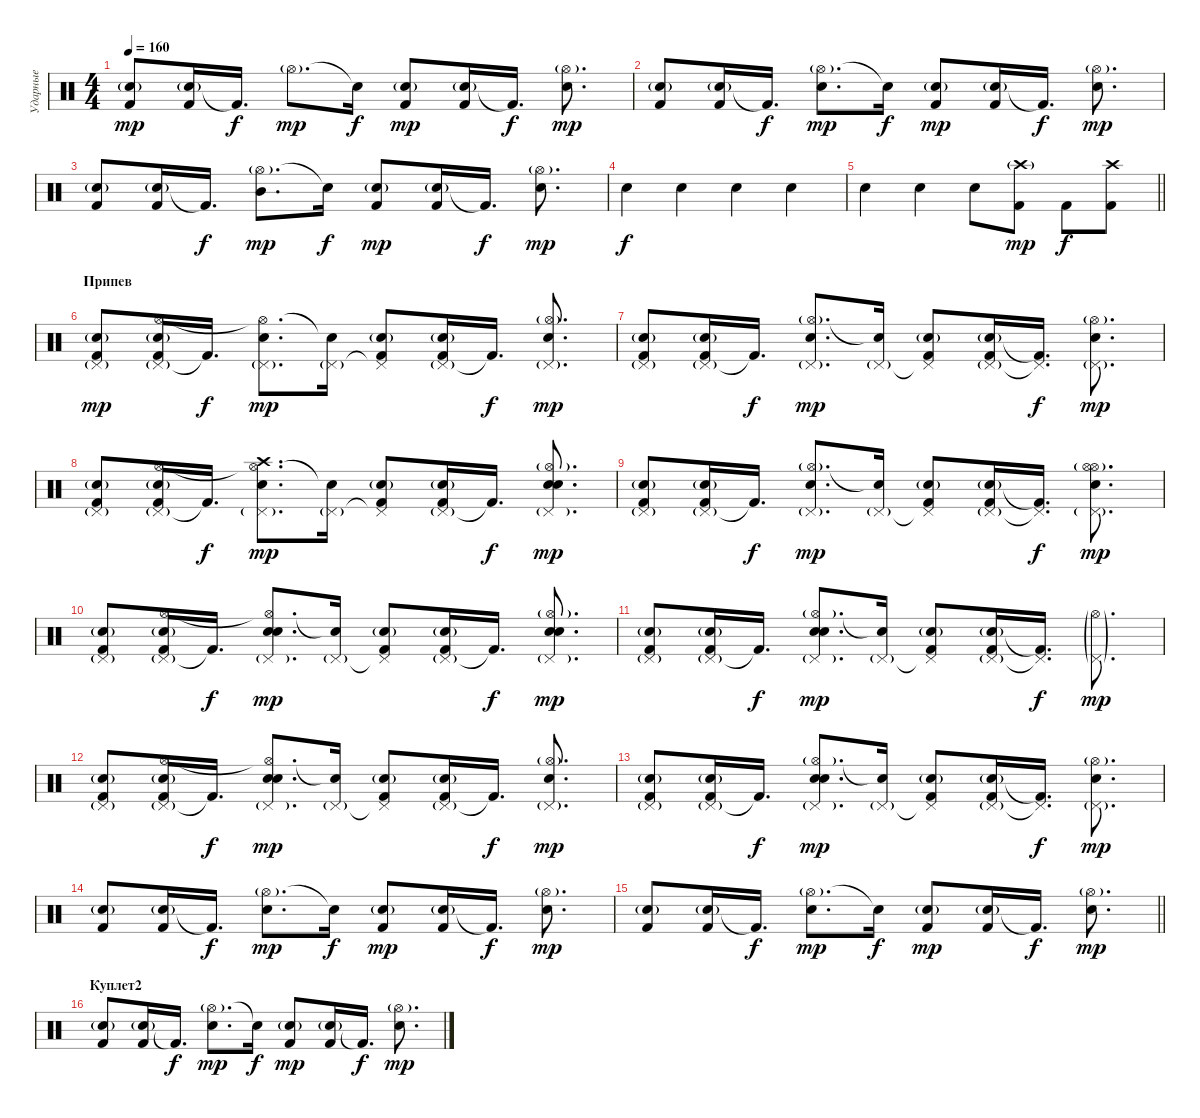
\track ("Ударные" "Ударные") {instrument percussion}
\staff {score}
\articulation defaults
\ts (4 4)
\tempo 160
\clef neutral
\ks c
("Snare (hit) 2"{g} "Kick (hit) 2").8{dy mp} ("Snare (hit) 2"{g} "Kick (hit) 2").16 "Kick (hit) 2"{t}.16{d dy f} "Hi-Hat (open)"{g}.8{d dy mp} "Electric Snare (hit)"{t}.16{dy f} ("Snare (hit) 2"{g} "Kick (hit) 2").8{dy mp} ("Snare (hit) 2"{g} "Kick (hit) 2").16 "Kick (hit) 2"{t}.16{d dy f} ("Hi-Hat (open)"{g} "Electric Snare (hit)").8{d dy mp} |
("Snare (hit) 2"{g} "Kick (hit) 2").8 ("Snare (hit) 2"{g} "Kick (hit) 2").16 "Kick (hit) 2"{t}.16{d dy f} ("Hi-Hat (open)"{g} "Snare (hit) 2").8{d dy mp} "Electric Snare (hit)"{t}.16{dy f} ("Snare (hit) 2"{g} "Kick (hit) 2").8{dy mp} ("Snare (hit) 2"{g} "Kick (hit) 2").16 "Kick (hit) 2"{t}.16{d dy f} ("Hi-Hat (open)"{g} "Electric Snare (hit)").8{d dy mp} |
("Snare (hit) 2"{g} "Kick (hit) 2").8 ("Snare (hit) 2"{g} "Kick (hit) 2").16 "Kick (hit) 2"{t}.16{d dy f} ("Hi-Hat (open)"{g} "Mid Tom (hit)").8{d dy mp} "Electric Snare (hit)"{t}.16{dy f} ("Snare (hit) 2"{g} "Kick (hit) 2").8{dy mp} ("Snare (hit) 2"{g} "Kick (hit) 2").16 "Kick (hit) 2"{t}.16{d dy f} ("Hi-Hat (open)"{g} "Electric Snare (hit)").8{d dy mp} |
"Electric Snare (hit)".4{dy f} "Electric Snare (hit)".4 "Electric Snare (hit)".4 "Electric Snare (hit)".4 |
\barLineRight lightlight "Electric Snare (hit)".4 "Electric Snare (hit)".4 "Electric Snare (hit)".8
("Crash high (hit)"{g} "Kick (hit) 2").8{dy mp} "Kick (hit) 2".8{dy f} ("Crash high (hit)" "Kick (hit) 2").8 |
\section ("" "Припев")
("Pedal Hi-Hat (hit)"{g} "Snare (hit) 2"{g} "Kick (hit) 2").8{dy mp} ("Pedal Hi-Hat (hit)"{g} "Hi-Hat (open)" "Snare (hit) 2"{g} "Kick (hit) 2").16 "Kick (hit) 2"{t}.16{d dy f} ("Pedal Hi-Hat (hit)"{g} "Hi-Hat (open)"{t} "Electric Snare (hit)").8{d dy mp} ("Pedal Hi-Hat (hit)"{g} "Electric Snare (hit)"{t}).16 ("Pedal Hi-Hat (hit)"{t} "Snare (hit) 2"{g} "Kick (hit) 2").8 ("Pedal Hi-Hat (hit)"{g} "Snare (hit) 2"{g} "Kick (hit) 2").16 "Kick (hit) 2"{t}.16{d dy f} ("Hi-Hat (open)"{g} "Pedal Hi-Hat (hit)"{g} "Snare (hit) 2").8{d dy mp} |
("Pedal Hi-Hat (hit)"{g} "Snare (hit) 2"{g} "Kick (hit) 2").8 ("Pedal Hi-Hat (hit)"{g} "Snare (hit) 2"{g} "Kick (hit) 2").16 "Kick (hit) 2"{t}.16{d dy f} ("Pedal Hi-Hat (hit)"{g} "Hi-Hat (open)"{g} "Snare (hit) 2").8{d dy mp} ("Pedal Hi-Hat (hit)"{g} "Electric Snare (hit)"{t}).16 ("Pedal Hi-Hat (hit)"{t} "Snare (hit) 2"{g} "Kick (hit) 2").8 ("Pedal Hi-Hat (hit)"{g} "Snare (hit) 2"{g} "Kick (hit) 2").16 ("Pedal Hi-Hat (hit)"{t} "Kick (hit) 2"{t}).16{d dy f} ("Hi-Hat (open)"{g} "Pedal Hi-Hat (hit)"{g} "Electric Snare (hit)").8{d dy mp} |
("Pedal Hi-Hat (hit)"{g} "Snare (hit) 2"{g} "Kick (hit) 2").8 ("Pedal Hi-Hat (hit)"{g} "Hi-Hat (open)" "Snare (hit) 2"{g} "Kick (hit) 2").16 "Kick (hit) 2"{t}.16{d dy f} ("Pedal Hi-Hat (hit)"{g} "Hi-Hat (open)"{t} "Electric Snare (hit)" "Crash high (hit)").8{d dy mp} ("Pedal Hi-Hat (hit)"{g} "Electric Snare (hit)"{t}).16 ("Pedal Hi-Hat (hit)"{t} "Snare (hit) 2"{g} "Kick (hit) 2").8 ("Pedal Hi-Hat (hit)"{g} "Snare (hit) 2"{g} "Kick (hit) 2").16 "Kick (hit) 2"{t}.16{d dy f} ("Hi-Hat (open)"{g} "Pedal Hi-Hat (hit)"{g} "Snare (hit) 2" "Electric Snare (hit)").8{d dy mp} |
("Pedal Hi-Hat (hit)"{g} "Snare (hit) 2"{g} "Kick (hit) 2").8 ("Pedal Hi-Hat (hit)"{g} "Snare (hit) 2"{g} "Kick (hit) 2").16 "Kick (hit) 2"{t}.16{d dy f} ("Pedal Hi-Hat (hit)"{g} "Hi-Hat (open)"{g} "Snare (hit) 2").8{d dy mp} ("Pedal Hi-Hat (hit)"{g} "Electric Snare (hit)"{t}).16 ("Pedal Hi-Hat (hit)"{t} "Snare (hit) 2"{g} "Kick (hit) 2").8 ("Pedal Hi-Hat (hit)"{g} "Snare (hit) 2"{g} "Kick (hit) 2").16 ("Pedal Hi-Hat (hit)"{t} "Kick (hit) 2"{t}).16{d dy f} ("Hi-Hat (open)"{g} "Pedal Hi-Hat (hit)"{g} "Electric Snare (hit)" "Hi-Hat (open)").8{d dy mp} |
("Pedal Hi-Hat (hit)"{g} "Snare (hit) 2"{g} "Kick (hit) 2").8 ("Pedal Hi-Hat (hit)"{g} "Hi-Hat (open)" "Snare (hit) 2"{g} "Kick (hit) 2").16 "Kick (hit) 2"{t}.16{d dy f} ("Pedal Hi-Hat (hit)"{g} "Hi-Hat (open)"{t} "Snare (hit) 2" "Electric Snare (hit)").8{d dy mp} ("Pedal Hi-Hat (hit)"{g} "Electric Snare (hit)"{t}).16 ("Pedal Hi-Hat (hit)"{t} "Snare (hit) 2"{g} "Kick (hit) 2").8 ("Pedal Hi-Hat (hit)"{g} "Snare (hit) 2"{g} "Kick (hit) 2").16 "Kick (hit) 2"{t}.16{d dy f} ("Hi-Hat (open)"{g} "Pedal Hi-Hat (hit)"{g} "Electric Snare (hit)" "Snare (hit) 2").8{d dy mp} |
("Pedal Hi-Hat (hit)"{g} "Snare (hit) 2"{g} "Kick (hit) 2").8 ("Pedal Hi-Hat (hit)"{g} "Snare (hit) 2"{g} "Kick (hit) 2").16 "Kick (hit) 2"{t}.16{d dy f} ("Pedal Hi-Hat (hit)"{g} "Hi-Hat (open)"{g} "Electric Snare (hit)" "Snare (hit) 2").8{d dy mp} ("Pedal Hi-Hat (hit)"{g} "Electric Snare (hit)"{t}).16 ("Pedal Hi-Hat (hit)"{t} "Snare (hit) 2"{g} "Kick (hit) 2").8 ("Pedal Hi-Hat (hit)"{g} "Snare (hit) 2"{g} "Kick (hit) 2").16 ("Pedal Hi-Hat (hit)"{t} "Kick (hit) 2"{t}).16{d dy f} ("Hi-Hat (open)"{g} "Pedal Hi-Hat (hit)"{g}).8{d dy mp} |
("Pedal Hi-Hat (hit)"{g} "Snare (hit) 2"{g} "Kick (hit) 2").8 ("Pedal Hi-Hat (hit)"{g} "Hi-Hat (open)" "Snare (hit) 2"{g} "Kick (hit) 2").16 "Kick (hit) 2"{t}.16{d dy f} ("Pedal Hi-Hat (hit)"{g} "Hi-Hat (open)"{t} "Electric Snare (hit)" "Snare (hit) 2").8{d dy mp} ("Pedal Hi-Hat (hit)"{g} "Electric Snare (hit)"{t}).16 ("Pedal Hi-Hat (hit)"{t} "Snare (hit) 2"{g} "Kick (hit) 2").8 ("Pedal Hi-Hat (hit)"{g} "Snare (hit) 2"{g} "Kick (hit) 2").16 "Kick (hit) 2"{t}.16{d dy f} ("Hi-Hat (open)"{g} "Pedal Hi-Hat (hit)"{g} "Snare (hit) 2").8{d dy mp} |
("Pedal Hi-Hat (hit)"{g} "Snare (hit) 2"{g} "Kick (hit) 2").8 ("Pedal Hi-Hat (hit)"{g} "Snare (hit) 2"{g} "Kick (hit) 2").16 "Kick (hit) 2"{t}.16{d dy f} ("Pedal Hi-Hat (hit)"{g} "Hi-Hat (open)"{g} "Snare (hit) 2" "Electric Snare (hit)").8{d dy mp} ("Pedal Hi-Hat (hit)"{g} "Electric Snare (hit)"{t}).16 ("Pedal Hi-Hat (hit)"{t} "Snare (hit) 2"{g} "Kick (hit) 2").8 ("Pedal Hi-Hat (hit)"{g} "Snare (hit) 2"{g} "Kick (hit) 2").16 ("Pedal Hi-Hat (hit)"{t} "Kick (hit) 2"{t}).16{d dy f} ("Hi-Hat (open)"{g} "Pedal Hi-Hat (hit)"{g} "Electric Snare (hit)").8{d dy mp} |
("Snare (hit) 2"{g} "Kick (hit) 2").8 ("Snare (hit) 2"{g} "Kick (hit) 2").16 "Kick (hit) 2"{t}.16{d dy f} ("Hi-Hat (open)"{g} "Snare (hit) 2").8{d dy mp} "Electric Snare (hit)"{t}.16{dy f} ("Snare (hit) 2"{g} "Kick (hit) 2").8{dy mp} ("Snare (hit) 2"{g} "Kick (hit) 2").16 "Kick (hit) 2"{t}.16{d dy f} ("Hi-Hat (open)"{g} "Electric Snare (hit)").8{d dy mp} |
\barLineRight lightlight
("Snare (hit) 2"{g} "Kick (hit) 2").8 ("Snare (hit) 2"{g} "Kick (hit) 2").16 "Kick (hit) 2"{t}.16{d dy f} ("Hi-Hat (open)"{g} "Snare (hit) 2").8{d dy mp} "Electric Snare (hit)"{t}.16{dy f} ("Snare (hit) 2"{g} "Kick (hit) 2").8{dy mp} ("Snare (hit) 2"{g} "Kick (hit) 2").16 "Kick (hit) 2"{t}.16{d dy f} ("Hi-Hat (open)"{g} "Electric Snare (hit)").8{d dy mp} |
\section ("" "Куплет2")
("Snare (hit) 2"{g} "Kick (hit) 2").8 ("Snare (hit) 2"{g} "Kick (hit) 2").16 "Kick (hit) 2"{t}.16{d dy f} ("Hi-Hat (open)"{g} "Snare (hit) 2").8{d dy mp} "Electric Snare (hit)"{t}.16{dy f} ("Snare (hit) 2"{g} "Kick (hit) 2").8{dy mp} ("Snare (hit) 2"{g} "Kick (hit) 2").16 "Kick (hit) 2"{t}.16{d dy f} ("Hi-Hat (open)"{g} "Electric Snare (hit)").8{d dy mp}
